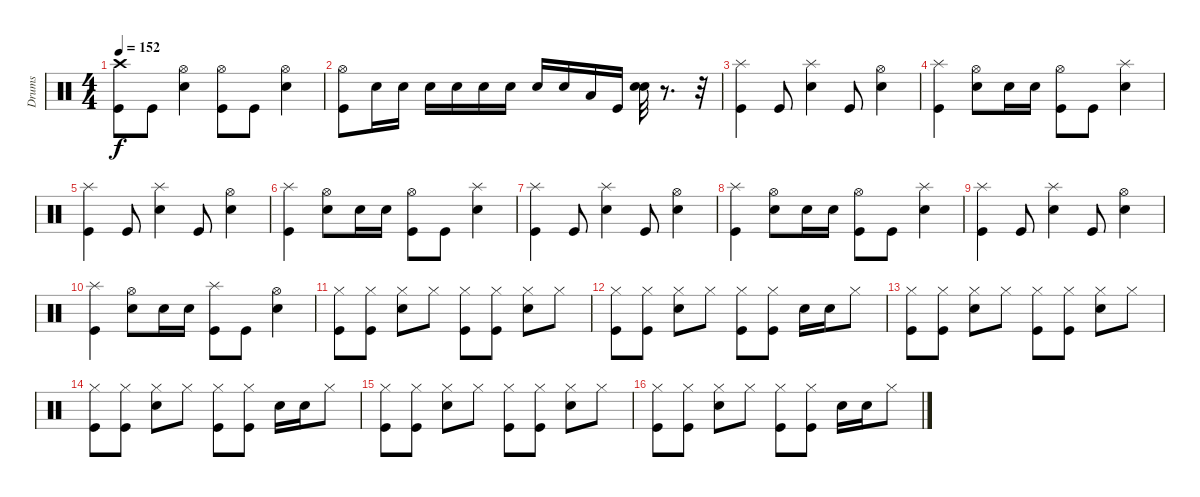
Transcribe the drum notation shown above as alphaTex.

\track ("Drums" "Drums") {instrument percussion}
\staff {score}
\articulation defaults
\ts (4 4)
\tempo 152
\clef neutral
\ks c
("Crash high (hit)" "Kick (hit)").8{dy f} "Kick (hit)".8 ("Hi-Hat (open)" "Snare (hit) 2").4 ("Hi-Hat (open)" "Kick (hit)").8 "Kick (hit)".8 ("Hi-Hat (open)" "Snare (hit) 2").4 |
("Hi-Hat (open)" "Kick (hit)").8 "Snare (hit) 2".16 "Snare (hit) 2".16 "Snare (hit) 2".16 "Snare (hit) 2".16 "Snare (hit) 2".16 "Snare (hit) 2".16 "Snare (hit) 2".16 "Snare (hit) 2".16 "Low Tom (hit)".16 "Kick (hit)".16 ("Snare (hit) 2" "Snare (hit) 2").32 r.8{d} r.32 |
("Splash (hit)" "Kick (hit)").4 "Kick (hit)".8 ("Splash (hit)" "Snare (hit) 2").4 "Kick (hit)".8 ("Hi-Hat (open)" "Snare (hit) 2").4 |
("Splash (hit)" "Kick (hit)").4 ("Hi-Hat (open)" "Snare (hit) 2").8 "Snare (hit) 2".16 "Snare (hit) 2".16 ("Hi-Hat (open)" "Kick (hit)").8 "Kick (hit)".8 ("Splash (hit)" "Snare (hit) 2").4 |
("Splash (hit)" "Kick (hit)").4 "Kick (hit)".8 ("Splash (hit)" "Snare (hit) 2").4 "Kick (hit)".8 ("Hi-Hat (open)" "Snare (hit) 2").4 |
("Splash (hit)" "Kick (hit)").4 ("Hi-Hat (open)" "Snare (hit) 2").8 "Snare (hit) 2".16 "Snare (hit) 2".16 ("Hi-Hat (open)" "Kick (hit)").8 "Kick (hit)".8 ("Splash (hit)" "Snare (hit) 2").4 |
("Splash (hit)" "Kick (hit)").4 "Kick (hit)".8 ("Splash (hit)" "Snare (hit) 2").4 "Kick (hit)".8 ("Hi-Hat (open)" "Snare (hit) 2").4 |
("Splash (hit)" "Kick (hit)").4 ("Hi-Hat (open)" "Snare (hit) 2").8 "Snare (hit) 2".16 "Snare (hit) 2".16 ("Hi-Hat (open)" "Kick (hit)").8 "Kick (hit)".8 ("Splash (hit)" "Snare (hit) 2").4 |
("Splash (hit)" "Kick (hit)").4 "Kick (hit)".8 ("Splash (hit)" "Snare (hit) 2").4 "Kick (hit)".8 ("Hi-Hat (open)" "Snare (hit) 2").4 |
("Splash (hit)" "Kick (hit)").4 ("Hi-Hat (open)" "Snare (hit) 2").8 "Snare (hit) 2".16 "Snare (hit) 2".16 ("Splash (hit)" "Kick (hit)").8 "Kick (hit)".8 ("Hi-Hat (open)" "Snare (hit) 2").4 |
("Hi-Hat (closed)" "Kick (hit)").8 ("Hi-Hat (closed)" "Kick (hit)").8 ("Hi-Hat (closed)" "Snare (hit) 2").8 "Hi-Hat (closed)".8 ("Hi-Hat (closed)" "Kick (hit)").8 ("Hi-Hat (closed)" "Kick (hit)").8 ("Hi-Hat (closed)" "Snare (hit) 2").8 "Hi-Hat (closed)".8 |
("Hi-Hat (closed)" "Kick (hit)").8 ("Hi-Hat (closed)" "Kick (hit)").8 ("Hi-Hat (closed)" "Snare (hit) 2").8 "Hi-Hat (closed)".8 ("Hi-Hat (closed)" "Kick (hit)").8 ("Hi-Hat (closed)" "Kick (hit)").8 "Snare (hit) 2".16 "Snare (hit) 2".16 "Hi-Hat (closed)".8 |
("Hi-Hat (closed)" "Kick (hit)").8 ("Hi-Hat (closed)" "Kick (hit)").8 ("Hi-Hat (closed)" "Snare (hit) 2").8 "Hi-Hat (closed)".8 ("Hi-Hat (closed)" "Kick (hit)").8 ("Hi-Hat (closed)" "Kick (hit)").8 ("Hi-Hat (closed)" "Snare (hit) 2").8 "Hi-Hat (closed)".8 |
("Hi-Hat (closed)" "Kick (hit)").8 ("Hi-Hat (closed)" "Kick (hit)").8 ("Hi-Hat (closed)" "Snare (hit) 2").8 "Hi-Hat (closed)".8 ("Hi-Hat (closed)" "Kick (hit)").8 ("Hi-Hat (closed)" "Kick (hit)").8 "Snare (hit) 2".16 "Snare (hit) 2".16 "Hi-Hat (closed)".8 |
("Hi-Hat (closed)" "Kick (hit)").8 ("Hi-Hat (closed)" "Kick (hit)").8 ("Hi-Hat (closed)" "Snare (hit) 2").8 "Hi-Hat (closed)".8 ("Hi-Hat (closed)" "Kick (hit)").8 ("Hi-Hat (closed)" "Kick (hit)").8 ("Hi-Hat (closed)" "Snare (hit) 2").8 "Hi-Hat (closed)".8 |
("Hi-Hat (closed)" "Kick (hit)").8 ("Hi-Hat (closed)" "Kick (hit)").8 ("Hi-Hat (closed)" "Snare (hit) 2").8 "Hi-Hat (closed)".8 ("Hi-Hat (closed)" "Kick (hit)").8 ("Hi-Hat (closed)" "Kick (hit)").8 "Snare (hit) 2".16 "Snare (hit) 2".16 "Hi-Hat (closed)".8
